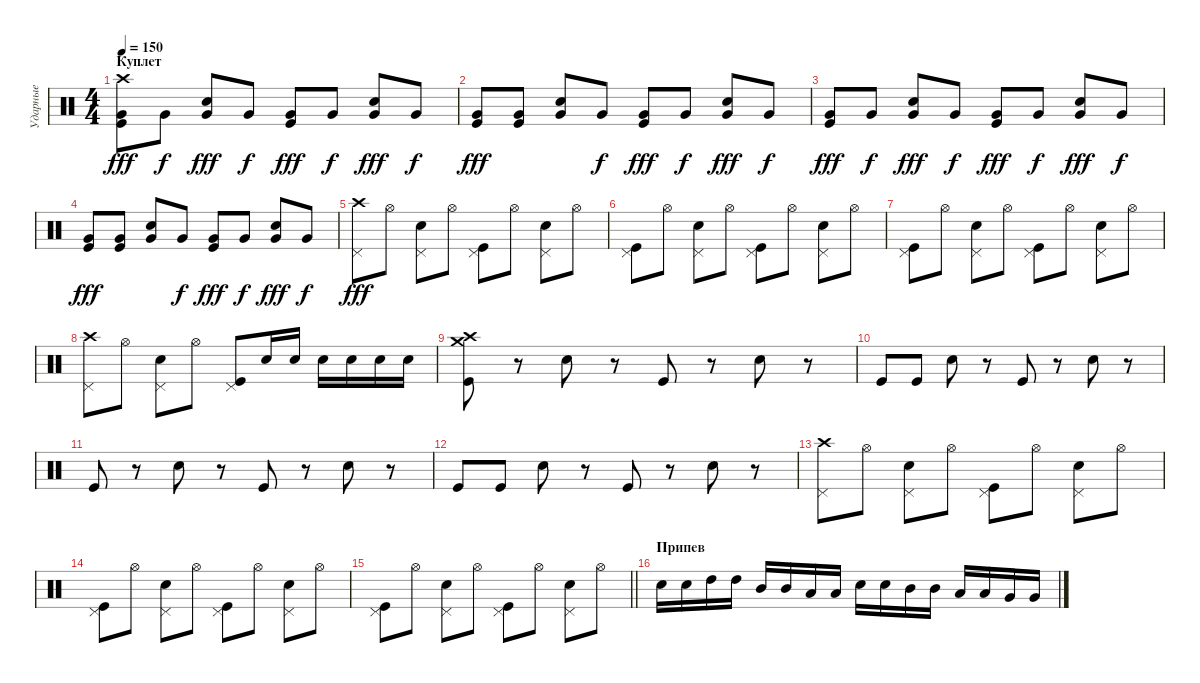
\track ("Ударные" "Ударные") {instrument percussion}
\staff {score}
\articulation defaults
\ts (4 4)
\section ("" "Куплет")
\tempo 150
\clef neutral
\ks c
("Crash high (hit)" "Kick (hit)" "Very Low Tom (hit)").8{dy fff} "Very Low Tom (hit)".8{dy f} ("Electric Snare (hit)" "Very Low Tom (hit)").8{dy fff} "Very Low Tom (hit)".8{dy f} ("Kick (hit)" "Very Low Tom (hit)").8{dy fff} "Very Low Tom (hit)".8{dy f} ("Electric Snare (hit)" "Very Low Tom (hit)").8{dy fff} "Very Low Tom (hit)".8{dy f} |
("Kick (hit)" "Very Low Tom (hit)").8{dy fff} ("Kick (hit)" "Very Low Tom (hit)").8 ("Electric Snare (hit)" "Very Low Tom (hit)").8 "Very Low Tom (hit)".8{dy f} ("Kick (hit)" "Very Low Tom (hit)").8{dy fff} "Very Low Tom (hit)".8{dy f} ("Electric Snare (hit)" "Very Low Tom (hit)").8{dy fff} "Very Low Tom (hit)".8{dy f} |
("Kick (hit)" "Very Low Tom (hit)").8{dy fff} "Very Low Tom (hit)".8{dy f} ("Electric Snare (hit)" "Very Low Tom (hit)").8{dy fff} "Very Low Tom (hit)".8{dy f} ("Kick (hit)" "Very Low Tom (hit)").8{dy fff} "Very Low Tom (hit)".8{dy f} ("Electric Snare (hit)" "Very Low Tom (hit)").8{dy fff} "Very Low Tom (hit)".8{dy f} |
("Kick (hit)" "Very Low Tom (hit)").8{dy fff} ("Kick (hit)" "Very Low Tom (hit)").8 ("Electric Snare (hit)" "Very Low Tom (hit)").8 "Very Low Tom (hit)".8{dy f} ("Kick (hit)" "Very Low Tom (hit)").8{dy fff} "Very Low Tom (hit)".8{dy f} ("Electric Snare (hit)" "Very Low Tom (hit)").8{dy fff} "Very Low Tom (hit)".8{dy f} |
("Crash high (hit)" "Pedal Hi-Hat (hit)").8{dy fff} "Hi-Hat (open)".8 ("Electric Snare (hit)" "Pedal Hi-Hat (hit)").8 "Hi-Hat (open)".8 ("Kick (hit)" "Pedal Hi-Hat (hit)").8 "Hi-Hat (open)".8 ("Electric Snare (hit)" "Pedal Hi-Hat (hit)").8 "Hi-Hat (open)".8 |
("Kick (hit)" "Pedal Hi-Hat (hit)").8 "Hi-Hat (open)".8 ("Electric Snare (hit)" "Pedal Hi-Hat (hit)").8 "Hi-Hat (open)".8 ("Kick (hit)" "Pedal Hi-Hat (hit)").8 "Hi-Hat (open)".8 ("Electric Snare (hit)" "Pedal Hi-Hat (hit)").8 "Hi-Hat (open)".8 |
("Kick (hit)" "Pedal Hi-Hat (hit)").8 "Hi-Hat (open)".8 ("Electric Snare (hit)" "Pedal Hi-Hat (hit)").8 "Hi-Hat (open)".8 ("Kick (hit)" "Pedal Hi-Hat (hit)").8 "Hi-Hat (open)".8 ("Electric Snare (hit)" "Pedal Hi-Hat (hit)").8 "Hi-Hat (open)".8 |
("Crash high (hit)" "Pedal Hi-Hat (hit)").8 "Hi-Hat (open)".8 ("Electric Snare (hit)" "Pedal Hi-Hat (hit)").8 "Hi-Hat (open)".8 ("Kick (hit)" "Pedal Hi-Hat (hit)").8 "Electric Snare (hit)".16 "Electric Snare (hit)".16 "Electric Snare (hit)".16 "Electric Snare (hit)".16 "Electric Snare (hit)".16 "Electric Snare (hit)".16 |
("Crash high (hit)" "Kick (hit)" "Crash medium (hit)").8 r.8 "Electric Snare (hit)".8 r.8 "Kick (hit)".8 r.8 "Electric Snare (hit)".8 r.8 |
"Kick (hit)".8 "Kick (hit)".8 "Electric Snare (hit)".8 r.8 "Kick (hit)".8 r.8 "Electric Snare (hit)".8 r.8 |
"Kick (hit)".8 r.8 "Electric Snare (hit)".8 r.8 "Kick (hit)".8 r.8 "Electric Snare (hit)".8 r.8 |
"Kick (hit)".8 "Kick (hit)".8 "Electric Snare (hit)".8 r.8 "Kick (hit)".8 r.8 "Electric Snare (hit)".8 r.8 |
("Crash high (hit)" "Pedal Hi-Hat (hit)").8 "Hi-Hat (open)".8 ("Electric Snare (hit)" "Pedal Hi-Hat (hit)").8 "Hi-Hat (open)".8 ("Kick (hit)" "Pedal Hi-Hat (hit)").8 "Hi-Hat (open)".8 ("Electric Snare (hit)" "Pedal Hi-Hat (hit)").8 "Hi-Hat (open)".8 |
("Kick (hit)" "Pedal Hi-Hat (hit)").8 "Hi-Hat (open)".8 ("Electric Snare (hit)" "Pedal Hi-Hat (hit)").8 "Hi-Hat (open)".8 ("Kick (hit)" "Pedal Hi-Hat (hit)").8 "Hi-Hat (open)".8 ("Electric Snare (hit)" "Pedal Hi-Hat (hit)").8 "Hi-Hat (open)".8 |
\barLineRight lightlight
("Kick (hit)" "Pedal Hi-Hat (hit)").8 "Hi-Hat (open)".8 ("Electric Snare (hit)" "Pedal Hi-Hat (hit)").8 "Hi-Hat (open)".8 ("Kick (hit)" "Pedal Hi-Hat (hit)").8 "Hi-Hat (open)".8 ("Electric Snare (hit)" "Pedal Hi-Hat (hit)").8 "Hi-Hat (open)".8 |
\section ("" "Припев")
"Electric Snare (hit)".16 "Electric Snare (hit)".16 "High Tom (hit)".16 "High Tom (hit)".16 "Mid Tom (hit)".16 "Mid Tom (hit)".16 "Low Tom (hit)".16 "Low Tom (hit)".16 "Electric Snare (hit)".16 "Electric Snare (hit)".16 "Mid Tom (hit)".16 "Mid Tom (hit)".16 "Low Tom (hit)".16 "Low Tom (hit)".16 "Very Low Tom (hit)".16 "Very Low Tom (hit)".16
